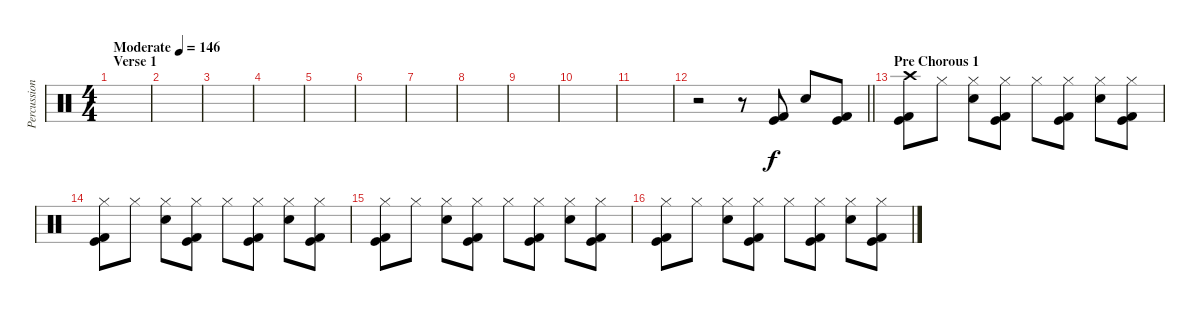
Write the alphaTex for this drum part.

\track ("Percussion" "Percussion") {instrument percussion}
\staff {score}
\articulation defaults
\ts (4 4)
\section ("" "Verse 1")
\tempo (146 "Moderate")
\clef neutral
\ks c
|
|
|
|
|
|
|
|
|
|
|
\barLineRight lightlight
r.2 r.8 ("Kick (hit)" "Kick (hit) 2").8 "Electric Snare (hit)".8 ("Kick (hit)" "Kick (hit) 2").8 |
\section ("" "Pre Chorous 1")
("Crash high (hit)" "Kick (hit)" "Kick (hit) 2").8 "Hi-Hat (closed)".8 ("Hi-Hat (closed)" "Electric Snare (hit)").8 ("Hi-Hat (closed)" "Kick (hit)" "Kick (hit) 2").8 "Hi-Hat (closed)".8 ("Hi-Hat (closed)" "Kick (hit)" "Kick (hit) 2").8 ("Hi-Hat (closed)" "Electric Snare (hit)").8 ("Hi-Hat (closed)" "Kick (hit)" "Kick (hit) 2").8 |
("Hi-Hat (closed)" "Kick (hit)" "Kick (hit) 2").8 "Hi-Hat (closed)".8 ("Hi-Hat (closed)" "Electric Snare (hit)").8 ("Hi-Hat (closed)" "Kick (hit)" "Kick (hit) 2").8 "Hi-Hat (closed)".8 ("Hi-Hat (closed)" "Kick (hit)" "Kick (hit) 2").8 ("Hi-Hat (closed)" "Electric Snare (hit)").8 ("Hi-Hat (closed)" "Kick (hit)" "Kick (hit) 2").8 |
("Hi-Hat (closed)" "Kick (hit)" "Kick (hit) 2").8 "Hi-Hat (closed)".8 ("Hi-Hat (closed)" "Electric Snare (hit)").8 ("Hi-Hat (closed)" "Kick (hit)" "Kick (hit) 2").8 "Hi-Hat (closed)".8 ("Hi-Hat (closed)" "Kick (hit)" "Kick (hit) 2").8 ("Hi-Hat (closed)" "Electric Snare (hit)").8 ("Hi-Hat (closed)" "Kick (hit)" "Kick (hit) 2").8 |
("Hi-Hat (closed)" "Kick (hit)" "Kick (hit) 2").8 "Hi-Hat (closed)".8 ("Hi-Hat (closed)" "Electric Snare (hit)").8 ("Hi-Hat (closed)" "Kick (hit)" "Kick (hit) 2").8 "Hi-Hat (closed)".8 ("Hi-Hat (closed)" "Kick (hit)" "Kick (hit) 2").8 ("Hi-Hat (closed)" "Electric Snare (hit)").8 ("Hi-Hat (closed)" "Kick (hit)" "Kick (hit) 2").8
